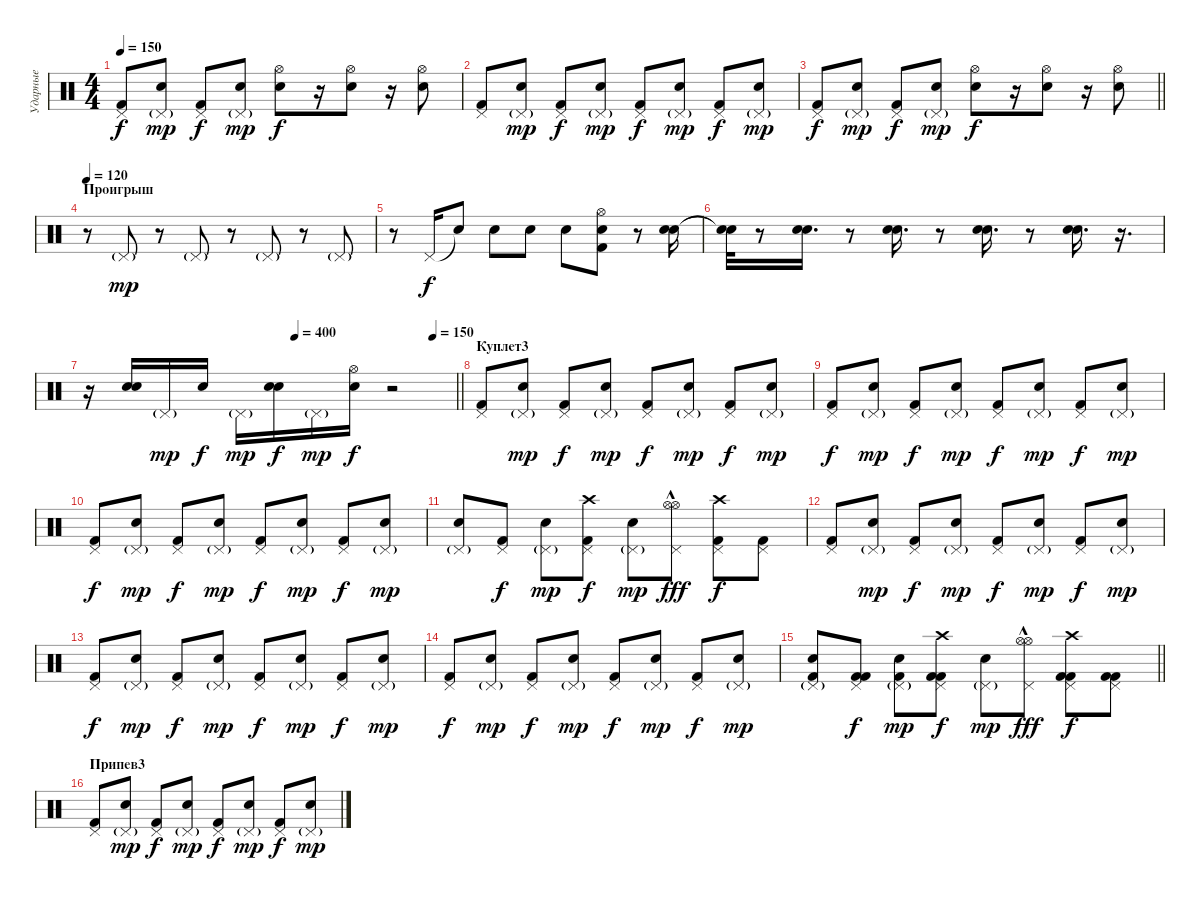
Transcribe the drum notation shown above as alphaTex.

\track ("Ударные" "Ударные") {instrument percussion}
\staff {score}
\articulation defaults
\ts (4 4)
\tempo 150
\clef neutral
\ks c
("Kick (hit) 2" "Pedal Hi-Hat (hit)").8{dy f} ("Electric Snare (hit)" "Pedal Hi-Hat (hit)"{g}).8{dy mp} ("Kick (hit) 2" "Pedal Hi-Hat (hit)").8{dy f} ("Electric Snare (hit)" "Pedal Hi-Hat (hit)"{g}).8{dy mp} ("Hi-Hat (open)" "Electric Snare (hit)").8{dy f} r.16 ("Hi-Hat (open)" "Electric Snare (hit)").8 r.16 ("Hi-Hat (open)" "Electric Snare (hit)").8 |
("Kick (hit) 2" "Pedal Hi-Hat (hit)").8 ("Electric Snare (hit)" "Pedal Hi-Hat (hit)"{g}).8{dy mp} ("Kick (hit) 2" "Pedal Hi-Hat (hit)").8{dy f} ("Electric Snare (hit)" "Pedal Hi-Hat (hit)"{g}).8{dy mp} ("Kick (hit) 2" "Pedal Hi-Hat (hit)").8{dy f} ("Electric Snare (hit)" "Pedal Hi-Hat (hit)"{g}).8{dy mp} ("Kick (hit) 2" "Pedal Hi-Hat (hit)").8{dy f} ("Electric Snare (hit)" "Pedal Hi-Hat (hit)"{g}).8{dy mp} |
\barLineRight lightlight
("Kick (hit) 2" "Pedal Hi-Hat (hit)").8{dy f} ("Electric Snare (hit)" "Pedal Hi-Hat (hit)"{g}).8{dy mp} ("Kick (hit) 2" "Pedal Hi-Hat (hit)").8{dy f} ("Electric Snare (hit)" "Pedal Hi-Hat (hit)"{g}).8{dy mp} ("Hi-Hat (open)" "Electric Snare (hit)").8{dy f} r.16 ("Hi-Hat (open)" "Electric Snare (hit)").8 r.16 ("Hi-Hat (open)" "Electric Snare (hit)").8 |
\section ("" "Проигрыш")
\tempo 120
r.8 "Pedal Hi-Hat (hit)"{g}.8{dy mp} r.8 "Pedal Hi-Hat (hit)"{g}.8 r.8 "Pedal Hi-Hat (hit)"{g}.8 r.8 "Pedal Hi-Hat (hit)"{g}.8 |
r.8 "Pedal Hi-Hat (hit)".16{dy f} "Snare (hit)"{t}.8 "Electric Snare (hit)".8 "Electric Snare (hit)".8 "Electric Snare (hit)".8 ("Electric Snare (hit)" "Kick (hit) 2" "Hi-Hat (open)").8 r.8 ("Electric Snare (hit)" "Snare (hit) 2").16 |
("Snare (hit)"{t} "Snare (hit)"{t}).32 r.8 ("Electric Snare (hit)" "Snare (hit) 2").16{d} r.8 ("Electric Snare (hit)" "Snare (hit) 2").16{d} r.8 ("Electric Snare (hit)" "Snare (hit) 2").16{d} r.8 ("Electric Snare (hit)" "Snare (hit) 2").16{d} r.16{d} |
\tempo (400 0.5625)
\tempo (150 0.9375)
\barLineRight lightlight
r.16 ("Electric Snare (hit)" "Snare (hit) 2").16 "Pedal Hi-Hat (hit)"{g}.16{dy mp} "Snare (hit) 2".16{dy f} "Pedal Hi-Hat (hit)"{g}.16{dy mp} ("Electric Snare (hit)" "Snare (hit) 2").16{dy f} "Pedal Hi-Hat (hit)"{g}.16{dy mp} ("Snare (hit) 2" "Hi-Hat (open)").16{dy f} r.2 |
\section ("" "Куплет3")
("Kick (hit) 2" "Pedal Hi-Hat (hit)").8 ("Electric Snare (hit)" "Pedal Hi-Hat (hit)"{g}).8{dy mp} ("Kick (hit) 2" "Pedal Hi-Hat (hit)").8{dy f} ("Electric Snare (hit)" "Pedal Hi-Hat (hit)"{g}).8{dy mp} ("Kick (hit) 2" "Pedal Hi-Hat (hit)").8{dy f} ("Electric Snare (hit)" "Pedal Hi-Hat (hit)"{g}).8{dy mp} ("Kick (hit) 2" "Pedal Hi-Hat (hit)").8{dy f} ("Electric Snare (hit)" "Pedal Hi-Hat (hit)"{g}).8{dy mp} |
("Kick (hit) 2" "Pedal Hi-Hat (hit)").8{dy f} ("Electric Snare (hit)" "Pedal Hi-Hat (hit)"{g}).8{dy mp} ("Kick (hit) 2" "Pedal Hi-Hat (hit)").8{dy f} ("Electric Snare (hit)" "Pedal Hi-Hat (hit)"{g}).8{dy mp} ("Kick (hit) 2" "Pedal Hi-Hat (hit)").8{dy f} ("Electric Snare (hit)" "Pedal Hi-Hat (hit)"{g}).8{dy mp} ("Kick (hit) 2" "Pedal Hi-Hat (hit)").8{dy f} ("Electric Snare (hit)" "Pedal Hi-Hat (hit)"{g}).8{dy mp} |
("Kick (hit) 2" "Pedal Hi-Hat (hit)").8{dy f} ("Electric Snare (hit)" "Pedal Hi-Hat (hit)"{g}).8{dy mp} ("Kick (hit) 2" "Pedal Hi-Hat (hit)").8{dy f} ("Electric Snare (hit)" "Pedal Hi-Hat (hit)"{g}).8{dy mp} ("Kick (hit) 2" "Pedal Hi-Hat (hit)").8{dy f} ("Electric Snare (hit)" "Pedal Hi-Hat (hit)"{g}).8{dy mp} ("Kick (hit) 2" "Pedal Hi-Hat (hit)").8{dy f} ("Electric Snare (hit)" "Pedal Hi-Hat (hit)"{g}).8{dy mp} |
("Electric Snare (hit)" "Pedal Hi-Hat (hit)"{g}).8 ("Kick (hit) 2" "Pedal Hi-Hat (hit)").8{dy f} ("Electric Snare (hit)" "Pedal Hi-Hat (hit)"{g}).8{dy mp} ("Crash high (hit)" "Kick (hit) 2" "Pedal Hi-Hat (hit)").8{dy f} ("Electric Snare (hit)" "Pedal Hi-Hat (hit)"{g}).8{dy mp} ("Hi-Hat (open)"{hac} "Pedal Hi-Hat (hit)" "Hi-Hat (open)").8{dy fff} ("Crash high (hit)" "Kick (hit) 2" "Pedal Hi-Hat (hit)").8{dy f} ("Kick (hit) 2" "Pedal Hi-Hat (hit)").8 |
("Kick (hit) 2" "Pedal Hi-Hat (hit)").8 ("Electric Snare (hit)" "Pedal Hi-Hat (hit)"{g}).8{dy mp} ("Kick (hit) 2" "Pedal Hi-Hat (hit)").8{dy f} ("Electric Snare (hit)" "Pedal Hi-Hat (hit)"{g}).8{dy mp} ("Kick (hit) 2" "Pedal Hi-Hat (hit)").8{dy f} ("Electric Snare (hit)" "Pedal Hi-Hat (hit)"{g}).8{dy mp} ("Kick (hit) 2" "Pedal Hi-Hat (hit)").8{dy f} ("Electric Snare (hit)" "Pedal Hi-Hat (hit)"{g}).8{dy mp} |
("Kick (hit) 2" "Pedal Hi-Hat (hit)").8{dy f} ("Electric Snare (hit)" "Pedal Hi-Hat (hit)"{g}).8{dy mp} ("Kick (hit) 2" "Pedal Hi-Hat (hit)").8{dy f} ("Electric Snare (hit)" "Pedal Hi-Hat (hit)"{g}).8{dy mp} ("Kick (hit) 2" "Pedal Hi-Hat (hit)").8{dy f} ("Electric Snare (hit)" "Pedal Hi-Hat (hit)"{g}).8{dy mp} ("Kick (hit) 2" "Pedal Hi-Hat (hit)").8{dy f} ("Electric Snare (hit)" "Pedal Hi-Hat (hit)"{g}).8{dy mp} |
("Kick (hit) 2" "Pedal Hi-Hat (hit)").8{dy f} ("Electric Snare (hit)" "Pedal Hi-Hat (hit)"{g}).8{dy mp} ("Kick (hit) 2" "Pedal Hi-Hat (hit)").8{dy f} ("Electric Snare (hit)" "Pedal Hi-Hat (hit)"{g}).8{dy mp} ("Kick (hit) 2" "Pedal Hi-Hat (hit)").8{dy f} ("Electric Snare (hit)" "Pedal Hi-Hat (hit)"{g}).8{dy mp} ("Kick (hit) 2" "Pedal Hi-Hat (hit)").8{dy f} ("Electric Snare (hit)" "Pedal Hi-Hat (hit)"{g}).8{dy mp} |
\barLineRight lightlight
("Kick (hit) 2" "Electric Snare (hit)" "Pedal Hi-Hat (hit)"{g}).8 ("Kick (hit) 2" "Kick (hit) 2" "Pedal Hi-Hat (hit)").8{dy f} ("Kick (hit) 2" "Electric Snare (hit)" "Pedal Hi-Hat (hit)"{g}).8{dy mp} ("Kick (hit) 2" "Crash high (hit)" "Kick (hit) 2" "Pedal Hi-Hat (hit)").8{dy f} ("Electric Snare (hit)" "Pedal Hi-Hat (hit)"{g}).8{dy mp} ("Hi-Hat (open)"{hac} "Pedal Hi-Hat (hit)" "Hi-Hat (open)").8{dy fff} ("Kick (hit) 2" "Crash high (hit)" "Kick (hit) 2" "Pedal Hi-Hat (hit)").8{dy f} ("Kick (hit) 2" "Kick (hit) 2" "Pedal Hi-Hat (hit)").8 |
\section ("" "Припев3")
("Kick (hit) 2" "Pedal Hi-Hat (hit)").8 ("Electric Snare (hit)" "Pedal Hi-Hat (hit)"{g}).8{dy mp} ("Kick (hit) 2" "Pedal Hi-Hat (hit)").8{dy f} ("Electric Snare (hit)" "Pedal Hi-Hat (hit)"{g}).8{dy mp} ("Kick (hit) 2" "Pedal Hi-Hat (hit)").8{dy f} ("Electric Snare (hit)" "Pedal Hi-Hat (hit)"{g}).8{dy mp} ("Kick (hit) 2" "Pedal Hi-Hat (hit)").8{dy f} ("Electric Snare (hit)" "Pedal Hi-Hat (hit)"{g}).8{dy mp}
